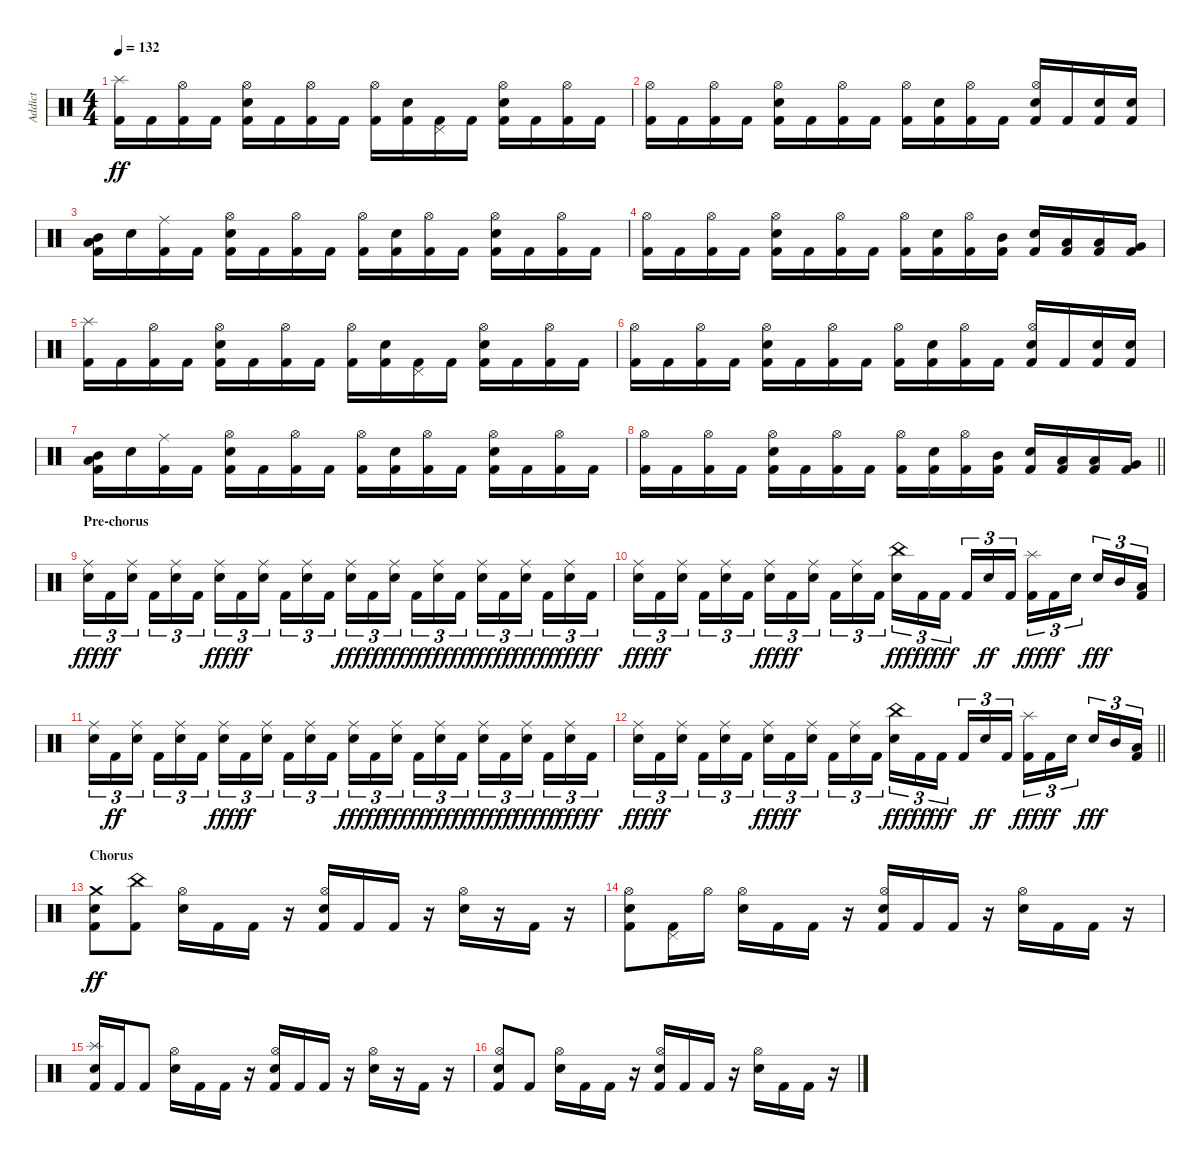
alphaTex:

\track ("Addict" "Addict") {instrument percussion}
\staff {score}
\articulation defaults
\ts (4 4)
\tempo 132
\clef neutral
\ks c
("Kick (hit) 2" "Splash (hit)").16{dy ff} "Kick (hit) 2".16 ("Kick (hit) 2" "Hi-Hat (open)").16 "Kick (hit) 2".16 ("Kick (hit) 2" "Snare (hit) 2" "Hi-Hat (open)").16 "Kick (hit) 2".16 ("Kick (hit) 2" "Hi-Hat (open)").16 "Kick (hit) 2".16 ("Kick (hit) 2" "Hi-Hat (open)").16 ("Kick (hit) 2" "Snare (hit) 2").16 ("Kick (hit) 2" "Pedal Hi-Hat (hit)").16 "Kick (hit) 2".16 ("Kick (hit) 2" "Snare (hit) 2" "Hi-Hat (open)").16 "Kick (hit) 2".16 ("Kick (hit) 2" "Hi-Hat (open)").16 "Kick (hit) 2".16 |
("Kick (hit) 2" "Hi-Hat (open)").16 "Kick (hit) 2".16 ("Kick (hit) 2" "Hi-Hat (open)").16 "Kick (hit) 2".16 ("Kick (hit) 2" "Snare (hit) 2" "Hi-Hat (open)").16 "Kick (hit) 2".16 ("Kick (hit) 2" "Hi-Hat (open)").16 "Kick (hit) 2".16 ("Kick (hit) 2" "Hi-Hat (open)").16 ("Kick (hit) 2" "Snare (hit) 2").16 ("Kick (hit) 2" "Hi-Hat (open)").16 "Kick (hit) 2".16 ("Kick (hit) 2" "Snare (hit) 2" "Hi-Hat (open)").16 "Kick (hit) 2".16 ("Kick (hit) 2" "Snare (hit) 2").16 ("Kick (hit) 2" "Snare (hit) 2").16 |
("Kick (hit) 2" "Low Tom (hit)" "Mid Tom (hit)").16 "Snare (hit) 2".16 ("Kick (hit) 2" "Ride (middle)").16 "Kick (hit) 2".16 ("Kick (hit) 2" "Snare (hit) 2" "Hi-Hat (open)").16 "Kick (hit) 2".16 ("Kick (hit) 2" "Hi-Hat (open)").16 "Kick (hit) 2".16 ("Kick (hit) 2" "Hi-Hat (open)").16 ("Kick (hit) 2" "Snare (hit) 2").16 ("Kick (hit) 2" "Hi-Hat (open)").16 "Kick (hit) 2".16 ("Kick (hit) 2" "Snare (hit) 2" "Hi-Hat (open)").16 "Kick (hit) 2".16 ("Kick (hit) 2" "Hi-Hat (open)").16 "Kick (hit) 2".16 |
("Kick (hit) 2" "Hi-Hat (open)").16 "Kick (hit) 2".16 ("Kick (hit) 2" "Hi-Hat (open)").16 "Kick (hit) 2".16 ("Kick (hit) 2" "Snare (hit) 2" "Hi-Hat (open)").16 "Kick (hit) 2".16 ("Kick (hit) 2" "Hi-Hat (open)").16 "Kick (hit) 2".16 ("Kick (hit) 2" "Hi-Hat (open)").16 ("Kick (hit) 2" "Snare (hit) 2").16 ("Kick (hit) 2" "Hi-Hat (open)").16 ("Kick (hit) 2" "Mid Tom (hit)").16 ("Kick (hit) 2" "Snare (hit) 2").16 ("Kick (hit) 2" "Low Tom (hit)").16 ("Kick (hit) 2" "Low Tom (hit)").16 ("Kick (hit) 2" "Very Low Tom (hit)").16 |
("Kick (hit) 2" "Splash (hit)").16 "Kick (hit) 2".16 ("Kick (hit) 2" "Hi-Hat (open)").16 "Kick (hit) 2".16 ("Kick (hit) 2" "Snare (hit) 2" "Hi-Hat (open)").16 "Kick (hit) 2".16 ("Kick (hit) 2" "Hi-Hat (open)").16 "Kick (hit) 2".16 ("Kick (hit) 2" "Hi-Hat (open)").16 ("Kick (hit) 2" "Snare (hit) 2").16 ("Kick (hit) 2" "Pedal Hi-Hat (hit)").16 "Kick (hit) 2".16 ("Kick (hit) 2" "Snare (hit) 2" "Hi-Hat (open)").16 "Kick (hit) 2".16 ("Kick (hit) 2" "Hi-Hat (open)").16 "Kick (hit) 2".16 |
("Kick (hit) 2" "Hi-Hat (open)").16 "Kick (hit) 2".16 ("Kick (hit) 2" "Hi-Hat (open)").16 "Kick (hit) 2".16 ("Kick (hit) 2" "Snare (hit) 2" "Hi-Hat (open)").16 "Kick (hit) 2".16 ("Kick (hit) 2" "Hi-Hat (open)").16 "Kick (hit) 2".16 ("Kick (hit) 2" "Hi-Hat (open)").16 ("Kick (hit) 2" "Snare (hit) 2").16 ("Kick (hit) 2" "Hi-Hat (open)").16 "Kick (hit) 2".16 ("Kick (hit) 2" "Snare (hit) 2" "Hi-Hat (open)").16 "Kick (hit) 2".16 ("Kick (hit) 2" "Snare (hit) 2").16 ("Kick (hit) 2" "Snare (hit) 2").16 |
("Kick (hit) 2" "Low Tom (hit)" "Mid Tom (hit)").16 "Snare (hit) 2".16 ("Kick (hit) 2" "Ride (middle)").16 "Kick (hit) 2".16 ("Kick (hit) 2" "Snare (hit) 2" "Hi-Hat (open)").16 "Kick (hit) 2".16 ("Kick (hit) 2" "Hi-Hat (open)").16 "Kick (hit) 2".16 ("Kick (hit) 2" "Hi-Hat (open)").16 ("Kick (hit) 2" "Snare (hit) 2").16 ("Kick (hit) 2" "Hi-Hat (open)").16 "Kick (hit) 2".16 ("Kick (hit) 2" "Snare (hit) 2" "Hi-Hat (open)").16 "Kick (hit) 2".16 ("Kick (hit) 2" "Hi-Hat (open)").16 "Kick (hit) 2".16 |
\barLineRight lightlight
("Kick (hit) 2" "Hi-Hat (open)").16 "Kick (hit) 2".16 ("Kick (hit) 2" "Hi-Hat (open)").16 "Kick (hit) 2".16 ("Kick (hit) 2" "Snare (hit) 2" "Hi-Hat (open)").16 "Kick (hit) 2".16 ("Kick (hit) 2" "Hi-Hat (open)").16 "Kick (hit) 2".16 ("Kick (hit) 2" "Hi-Hat (open)").16 ("Kick (hit) 2" "Snare (hit) 2").16 ("Kick (hit) 2" "Hi-Hat (open)").16 ("Kick (hit) 2" "Mid Tom (hit)").16 ("Kick (hit) 2" "Snare (hit) 2").16 ("Kick (hit) 2" "Low Tom (hit)").16 ("Kick (hit) 2" "Low Tom (hit)").16 ("Kick (hit) 2" "Very Low Tom (hit)").16 |
\section ("" "Pre-chorus")
("Snare (hit) 2" "Ride (middle)").16{tu (3 2) dy fff} "Kick (hit) 2".16{tu (3 2) dy ff} ("Snare (hit) 2" "Ride (middle)").16{tu (3 2) beam splitsecondary} "Kick (hit) 2".16{tu (3 2)} ("Snare (hit) 2" "Ride (middle)").16{tu (3 2)} "Kick (hit) 2".16{tu (3 2)} ("Snare (hit) 2" "Ride (middle)").16{tu (3 2) dy fff} "Kick (hit) 2".16{tu (3 2) dy ff} ("Snare (hit) 2" "Ride (middle)").16{tu (3 2) beam splitsecondary} "Kick (hit) 2".16{tu (3 2)} ("Snare (hit) 2" "Ride (middle)").16{tu (3 2)} "Kick (hit) 2".16{tu (3 2)} ("Snare (hit) 2" "Ride (middle)").16{tu (3 2) dy fff} "Kick (hit) 2".16{tu (3 2) dy ff} ("Snare (hit) 2" "Ride (middle)").16{tu (3 2) dy fff beam splitsecondary} "Kick (hit) 2".16{tu (3 2) dy ff} ("Snare (hit) 2" "Ride (middle)").16{tu (3 2) dy fff} "Kick (hit) 2".16{tu (3 2) dy ff} ("Snare (hit) 2" "Ride (middle)").16{tu (3 2) dy fff} "Kick (hit) 2".16{tu (3 2) dy ff} ("Snare (hit) 2" "Ride (middle)").16{tu (3 2) dy fff beam splitsecondary} "Kick (hit) 2".16{tu (3 2) dy ff} ("Snare (hit) 2" "Ride (middle)").16{tu (3 2) dy fff} "Kick (hit) 2".16{tu (3 2) dy ff} |
("Snare (hit) 2" "Ride (middle)").16{tu (3 2) dy fff} "Kick (hit) 2".16{tu (3 2) dy ff} ("Snare (hit) 2" "Ride (middle)").16{tu (3 2) beam splitsecondary} "Kick (hit) 2".16{tu (3 2)} ("Snare (hit) 2" "Ride (middle)").16{tu (3 2)} "Kick (hit) 2".16{tu (3 2)} ("Snare (hit) 2" "Ride (middle)").16{tu (3 2) dy fff} "Kick (hit) 2".16{tu (3 2) dy ff} ("Snare (hit) 2" "Ride (middle)").16{tu (3 2) beam splitsecondary} "Kick (hit) 2".16{tu (3 2)} ("Snare (hit) 2" "Ride (middle)").16{tu (3 2)} "Kick (hit) 2".16{tu (3 2)} ("Snare (hit) 2" "China (hit)").16{tu (3 2) dy fff} "Kick (hit) 2".16{tu (3 2) dy ff} "Kick (hit) 2".16{tu (3 2) dy fff beam splitsecondary} "Kick (hit) 2".16{tu (3 2)} "Snare (hit) 2".16{tu (3 2) dy ff} "Kick (hit) 2".16{tu (3 2)} ("Kick (hit) 2" "Splash (hit)").16{tu (3 2) dy fff} "Kick (hit) 2".16{tu (3 2) dy ff} "Snare (hit) 2".16{tu (3 2) beam splitsecondary} "Snare (hit) 2".16{tu (3 2) dy fff} "Mid Tom (hit)".16{tu (3 2)} ("Kick (hit) 2" "Low Tom (hit)").16{tu (3 2)} |
("Snare (hit) 2" "Ride (middle)").16{tu (3 2)} "Kick (hit) 2".16{tu (3 2) dy ff} ("Snare (hit) 2" "Ride (middle)").16{tu (3 2) beam splitsecondary} "Kick (hit) 2".16{tu (3 2)} ("Snare (hit) 2" "Ride (middle)").16{tu (3 2)} "Kick (hit) 2".16{tu (3 2)} ("Snare (hit) 2" "Ride (middle)").16{tu (3 2) dy fff} "Kick (hit) 2".16{tu (3 2) dy ff} ("Snare (hit) 2" "Ride (middle)").16{tu (3 2) beam splitsecondary} "Kick (hit) 2".16{tu (3 2)} ("Snare (hit) 2" "Ride (middle)").16{tu (3 2)} "Kick (hit) 2".16{tu (3 2)} ("Snare (hit) 2" "Ride (middle)").16{tu (3 2) dy fff} "Kick (hit) 2".16{tu (3 2) dy ff} ("Snare (hit) 2" "Ride (middle)").16{tu (3 2) dy fff beam splitsecondary} "Kick (hit) 2".16{tu (3 2) dy ff} ("Snare (hit) 2" "Ride (middle)").16{tu (3 2) dy fff} "Kick (hit) 2".16{tu (3 2) dy ff} ("Snare (hit) 2" "Ride (middle)").16{tu (3 2) dy fff} "Kick (hit) 2".16{tu (3 2) dy ff} ("Snare (hit) 2" "Ride (middle)").16{tu (3 2) dy fff beam splitsecondary} "Kick (hit) 2".16{tu (3 2) dy ff} ("Snare (hit) 2" "Ride (middle)").16{tu (3 2) dy fff} "Kick (hit) 2".16{tu (3 2) dy ff} |
\barLineRight lightlight
("Snare (hit) 2" "Ride (middle)").16{tu (3 2) dy fff} "Kick (hit) 2".16{tu (3 2) dy ff} ("Snare (hit) 2" "Ride (middle)").16{tu (3 2) beam splitsecondary} "Kick (hit) 2".16{tu (3 2)} ("Snare (hit) 2" "Ride (middle)").16{tu (3 2)} "Kick (hit) 2".16{tu (3 2)} ("Snare (hit) 2" "Ride (middle)").16{tu (3 2) dy fff} "Kick (hit) 2".16{tu (3 2) dy ff} ("Snare (hit) 2" "Ride (middle)").16{tu (3 2) beam splitsecondary} "Kick (hit) 2".16{tu (3 2)} ("Snare (hit) 2" "Ride (middle)").16{tu (3 2)} "Kick (hit) 2".16{tu (3 2)} ("Snare (hit) 2" "China (hit)").16{tu (3 2) dy fff} "Kick (hit) 2".16{tu (3 2) dy ff} "Kick (hit) 2".16{tu (3 2) dy fff beam splitsecondary} "Kick (hit) 2".16{tu (3 2)} "Snare (hit) 2".16{tu (3 2) dy ff} "Kick (hit) 2".16{tu (3 2)} ("Kick (hit) 2" "Splash (hit)").16{tu (3 2) dy fff} "Kick (hit) 2".16{tu (3 2) dy ff} "Snare (hit) 2".16{tu (3 2) beam splitsecondary} "Snare (hit) 2".16{tu (3 2) dy fff} "Mid Tom (hit)".16{tu (3 2)} ("Kick (hit) 2" "Low Tom (hit)").16{tu (3 2)} |
\section ("" "Chorus")
("Kick (hit) 2" "Snare (hit) 2" "Crash medium (hit)").8{dy ff} ("Kick (hit) 2" "China (hit)").8 ("Snare (hit) 2" "Hi-Hat (open)").16 "Kick (hit) 2".16 "Kick (hit) 2".16 r.16 ("Kick (hit) 2" "Snare (hit) 2" "Hi-Hat (open)").16 "Kick (hit) 2".16 "Kick (hit) 2".16 r.16 ("Snare (hit) 2" "Hi-Hat (open)").16 r.16 "Kick (hit) 2".16 r.16 |
("Kick (hit) 2" "Snare (hit) 2" "Hi-Hat (open)").8 ("Kick (hit) 2" "Pedal Hi-Hat (hit)").16 "Hi-Hat (open)".16 ("Snare (hit) 2" "Hi-Hat (open)").16 "Kick (hit) 2".16 "Kick (hit) 2".16 r.16 ("Kick (hit) 2" "Snare (hit) 2" "Hi-Hat (open)").16 "Kick (hit) 2".16 "Kick (hit) 2".16 r.16 ("Snare (hit) 2" "Hi-Hat (open)").16 "Kick (hit) 2".16 "Kick (hit) 2".16 r.16 |
("Kick (hit) 2" "Snare (hit) 2" "Splash (hit)").16 "Kick (hit) 2".16 "Kick (hit) 2".8 ("Snare (hit) 2" "Hi-Hat (open)").16 "Kick (hit) 2".16 "Kick (hit) 2".16 r.16 ("Kick (hit) 2" "Snare (hit) 2" "Hi-Hat (open)").16 "Kick (hit) 2".16 "Kick (hit) 2".16 r.16 ("Snare (hit) 2" "Hi-Hat (open)").16 r.16 "Kick (hit) 2".16 r.16 |
("Kick (hit) 2" "Snare (hit) 2" "Hi-Hat (open)").8 "Kick (hit) 2".8 ("Snare (hit) 2" "Hi-Hat (open)").16 "Kick (hit) 2".16 "Kick (hit) 2".16 r.16 ("Kick (hit) 2" "Snare (hit) 2" "Hi-Hat (open)").16 "Kick (hit) 2".16 "Kick (hit) 2".16 r.16 ("Snare (hit) 2" "Hi-Hat (open)").16 "Kick (hit) 2".16 "Kick (hit) 2".16 r.16
